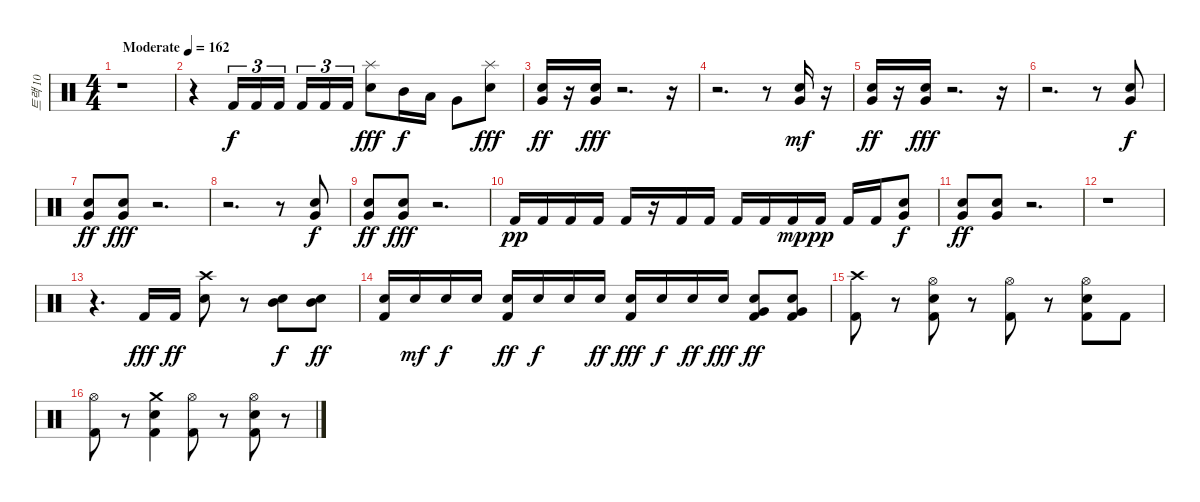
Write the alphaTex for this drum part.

\track ("트랙 10" "트랙 10") {instrument percussion}
\staff {score}
\articulation defaults
\ts (4 4)
\tempo (162 "Moderate")
\clef neutral
\ks c
r.1{dy f} |
r.4 "Kick (hit) 2".16{tu (3 2)} "Kick (hit) 2".16{tu (3 2)} "Kick (hit) 2".16{tu (3 2) beam splitsecondary} "Kick (hit) 2".16{tu (3 2)} "Kick (hit) 2".16{tu (3 2)} "Kick (hit) 2".16{tu (3 2)} ("Splash (hit)" "Electric Snare (hit)").8{dy fff} "Mid Tom (hit)".16{dy f} "Low Tom (hit)".16 "Very Low Tom (hit)".8 ("Splash (hit)" "Electric Snare (hit)").8{dy fff} |
("Electric Snare (hit)" "Very Low Tom (hit)").16{dy ff} r.16 ("Electric Snare (hit)" "Very Low Tom (hit)").16{dy fff} r.2{d} r.16 |
r.2{d} r.8 ("Electric Snare (hit)" "Very Low Tom (hit)").16{dy mf} r.16 |
("Electric Snare (hit)" "Very Low Tom (hit)").16{dy ff} r.16 ("Electric Snare (hit)" "Very Low Tom (hit)").16{dy fff} r.2{d} r.16 |
r.2{d} r.8 ("Electric Snare (hit)" "Very Low Tom (hit)").8{dy f} |
("Electric Snare (hit)" "Very Low Tom (hit)").8{dy ff} ("Electric Snare (hit)" "Very Low Tom (hit)").8{dy fff} r.2{d} |
r.2{d} r.8 ("Electric Snare (hit)" "Very Low Tom (hit)").8{dy f} |
("Electric Snare (hit)" "Very Low Tom (hit)").8{dy ff} ("Electric Snare (hit)" "Very Low Tom (hit)").8{dy fff} r.2{d} |
"Kick (hit) 2".16{dy pp} "Kick (hit) 2".16 "Kick (hit) 2".16 "Kick (hit) 2".16 "Kick (hit) 2".16 r.16 "Kick (hit) 2".16 "Kick (hit) 2".16 "Kick (hit) 2".16 "Kick (hit) 2".16 "Kick (hit) 2".16{dy mp} "Kick (hit) 2".16{dy pp} "Kick (hit) 2".16 "Kick (hit) 2".16 ("Electric Snare (hit)" "Very Low Tom (hit)").8{dy f} |
("Electric Snare (hit)" "Very Low Tom (hit)").8{dy ff} ("Electric Snare (hit)" "Very Low Tom (hit)").8 r.2{d} |
r.1 |
r.4{d} "Kick (hit) 2".16{dy fff} "Kick (hit) 2".16{dy ff} ("Electric Snare (hit)" "Crash high (hit)").8 r.8 ("Electric Snare (hit)" "Mid Tom (hit)").8{dy f} ("Electric Snare (hit)" "Mid Tom (hit)").8{dy ff} |
("Kick (hit) 2" "Electric Snare (hit)").16 "Electric Snare (hit)".16{dy mf} "Electric Snare (hit)".16{dy f} "Electric Snare (hit)".16 ("Kick (hit) 2" "Electric Snare (hit)").16{dy ff} "Electric Snare (hit)".16{dy f} "Electric Snare (hit)".16 "Electric Snare (hit)".16{dy ff} ("Kick (hit) 2" "Electric Snare (hit)").16{dy fff} "Electric Snare (hit)".16{dy f} "Electric Snare (hit)".16{dy ff} "Electric Snare (hit)".16{dy fff} ("Kick (hit) 2" "Electric Snare (hit)" "Very Low Tom (hit)").8{dy ff} ("Kick (hit) 2" "Electric Snare (hit)" "Very Low Tom (hit)").8 |
("Kick (hit) 2" "Crash high (hit)").8 r.8 ("Hi-Hat (open)" "Kick (hit) 2" "Electric Snare (hit)").8 r.8 ("Hi-Hat (open)" "Kick (hit) 2").8 r.8 ("Hi-Hat (open)" "Kick (hit) 2" "Electric Snare (hit)").8 "Kick (hit) 2".8 |
("Hi-Hat (open)" "Kick (hit) 2").8 r.8 ("Kick (hit) 2" "Electric Snare (hit)" "Crash medium (hit)").4 ("Hi-Hat (open)" "Kick (hit) 2").8 r.8 ("Hi-Hat (open)" "Kick (hit) 2" "Electric Snare (hit)").8 r.8
